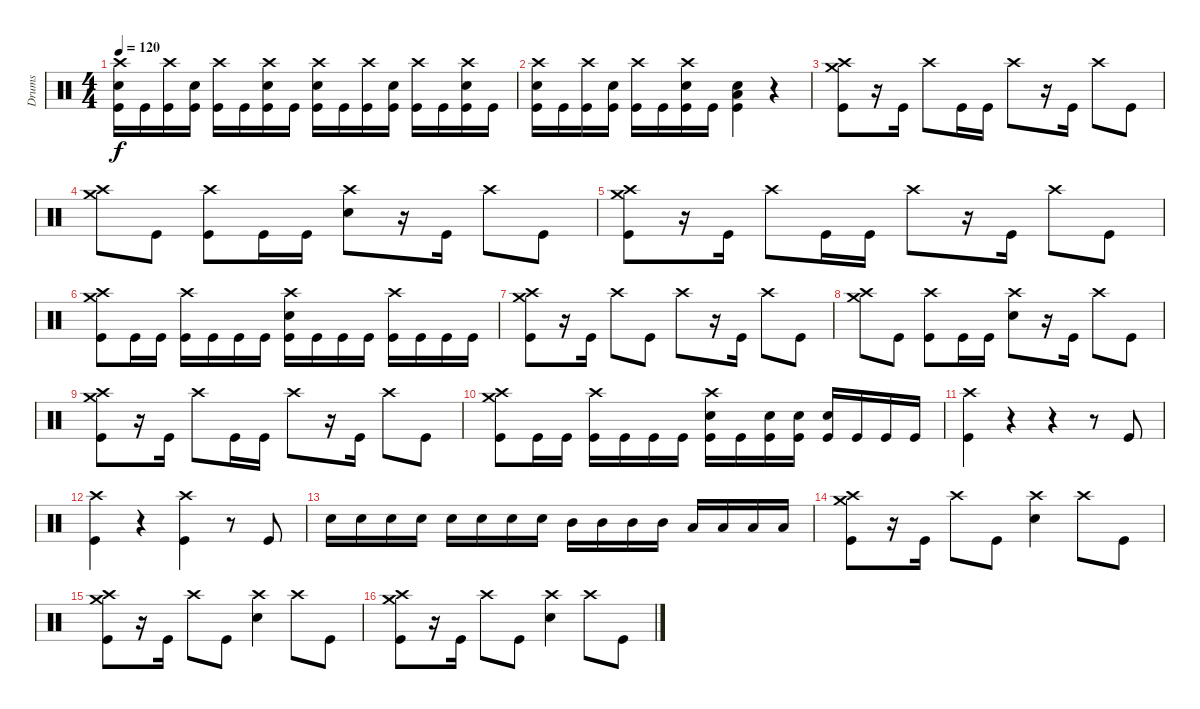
\track ("Drums" "Drums") {instrument percussion}
\staff {score}
\articulation defaults
\ts (4 4)
\tempo 120
\clef neutral
\ks c
("Crash high (hit)" "Snare (hit) 2" "Kick (hit)").16{dy f} "Kick (hit)".16 ("Crash high (hit)" "Kick (hit)").16 ("Snare (hit) 2" "Kick (hit)").16 ("Crash high (hit)" "Kick (hit)").16 "Kick (hit)".16 ("Crash high (hit)" "Snare (hit) 2" "Kick (hit)").16 "Kick (hit)".16 ("Crash high (hit)" "Snare (hit) 2" "Kick (hit)").16 "Kick (hit)".16 ("Crash high (hit)" "Kick (hit)").16 ("Snare (hit) 2" "Kick (hit)").16 ("Crash high (hit)" "Kick (hit)").16 "Kick (hit)".16 ("Crash high (hit)" "Snare (hit) 2" "Kick (hit)").16 "Kick (hit)".16 |
("Crash high (hit)" "Snare (hit) 2" "Kick (hit)").16 "Kick (hit)".16 ("Crash high (hit)" "Kick (hit)").16 ("Snare (hit) 2" "Kick (hit)").16 ("Crash high (hit)" "Kick (hit)").16 "Kick (hit)".16 ("Crash high (hit)" "Snare (hit) 2" "Kick (hit)").16 "Kick (hit)".16 ("Snare (hit) 2" "Low Floor Tom (hit)" "Kick (hit)").4 r.4 |
("Crash high (hit)" "Crash medium (hit)" "Kick (hit)").8 r.16 "Kick (hit)".16 "Crash high (hit)".8 "Kick (hit)".16 "Kick (hit)".16 "Crash high (hit)".8 r.16 "Kick (hit)".16 "Crash high (hit)".8 "Kick (hit)".8 |
("Crash high (hit)" "Crash medium (hit)").8 "Kick (hit)".8 ("Crash high (hit)" "Kick (hit)").8 "Kick (hit)".16 "Kick (hit)".16 ("Crash high (hit)" "Snare (hit) 2").8 r.16 "Kick (hit)".16 "Crash high (hit)".8 "Kick (hit)".8 |
("Crash high (hit)" "Crash medium (hit)" "Kick (hit)").8 r.16 "Kick (hit)".16 "Crash high (hit)".8 "Kick (hit)".16 "Kick (hit)".16 "Crash high (hit)".8 r.16 "Kick (hit)".16 "Crash high (hit)".8 "Kick (hit)".8 |
("Crash high (hit)" "Crash medium (hit)" "Kick (hit)").8 "Kick (hit)".16 "Kick (hit)".16 ("Crash high (hit)" "Kick (hit)").16 "Kick (hit)".16 "Kick (hit)".16 "Kick (hit)".16 ("Crash high (hit)" "Snare (hit) 2" "Kick (hit)").16 "Kick (hit)".16 "Kick (hit)".16 "Kick (hit)".16 ("Crash high (hit)" "Kick (hit)").16 "Kick (hit)".16 "Kick (hit)".16 "Kick (hit)".16 |
("Crash high (hit)" "Crash medium (hit)" "Kick (hit)").8 r.16 "Kick (hit)".16 "Crash high (hit)".8 "Kick (hit)".8 "Crash high (hit)".8 r.16 "Kick (hit)".16 "Crash high (hit)".8 "Kick (hit)".8 |
("Crash high (hit)" "Crash medium (hit)").8 "Kick (hit)".8 ("Crash high (hit)" "Kick (hit)").8 "Kick (hit)".16 "Kick (hit)".16 ("Crash high (hit)" "Snare (hit) 2").8 r.16 "Kick (hit)".16 "Crash high (hit)".8 "Kick (hit)".8 |
("Crash high (hit)" "Crash medium (hit)" "Kick (hit)").8 r.16 "Kick (hit)".16 "Crash high (hit)".8 "Kick (hit)".16 "Kick (hit)".16 "Crash high (hit)".8 r.16 "Kick (hit)".16 "Crash high (hit)".8 "Kick (hit)".8 |
("Crash high (hit)" "Crash medium (hit)" "Kick (hit)").8 "Kick (hit)".16 "Kick (hit)".16 ("Crash high (hit)" "Kick (hit)").16 "Kick (hit)".16 "Kick (hit)".16 "Kick (hit)".16 ("Crash high (hit)" "Snare (hit) 2" "Kick (hit)").16 "Kick (hit)".16 ("Snare (hit) 2" "Kick (hit)").16 ("Snare (hit) 2" "Kick (hit)").16 ("Snare (hit) 2" "Kick (hit)").16 "Kick (hit)".16 "Kick (hit)".16 "Kick (hit)".16 |
("Crash high (hit)" "Kick (hit)").4 r.4 r.4 r.8 "Kick (hit)".8 |
("Crash high (hit)" "Kick (hit)").4 r.4 ("Crash high (hit)" "Kick (hit)").4 r.8 "Kick (hit)".8 |
"Snare (hit) 2".16 "Snare (hit) 2".16 "Snare (hit) 2".16 "Snare (hit) 2".16 "Snare (hit) 2".16 "Snare (hit) 2".16 "Snare (hit) 2".16 "Snare (hit) 2".16 "Mid Tom (hit)".16 "Mid Tom (hit)".16 "Mid Tom (hit)".16 "Mid Tom (hit)".16 "Low Floor Tom (hit)".16 "Low Floor Tom (hit)".16 "Low Floor Tom (hit)".16 "Low Floor Tom (hit)".16 |
("Crash high (hit)" "Crash medium (hit)" "Kick (hit)").8 r.16 "Kick (hit)".16 "Crash high (hit)".8 "Kick (hit)".8 ("Crash high (hit)" "Snare (hit) 2").4 "Crash high (hit)".8 "Kick (hit)".8 |
("Crash high (hit)" "Crash medium (hit)" "Kick (hit)").8 r.16 "Kick (hit)".16 "Crash high (hit)".8 "Kick (hit)".8 ("Crash high (hit)" "Snare (hit) 2").4 "Crash high (hit)".8 "Kick (hit)".8 |
("Crash high (hit)" "Crash medium (hit)" "Kick (hit)").8 r.16 "Kick (hit)".16 "Crash high (hit)".8 "Kick (hit)".8 ("Crash high (hit)" "Snare (hit) 2").4 "Crash high (hit)".8 "Kick (hit)".8
